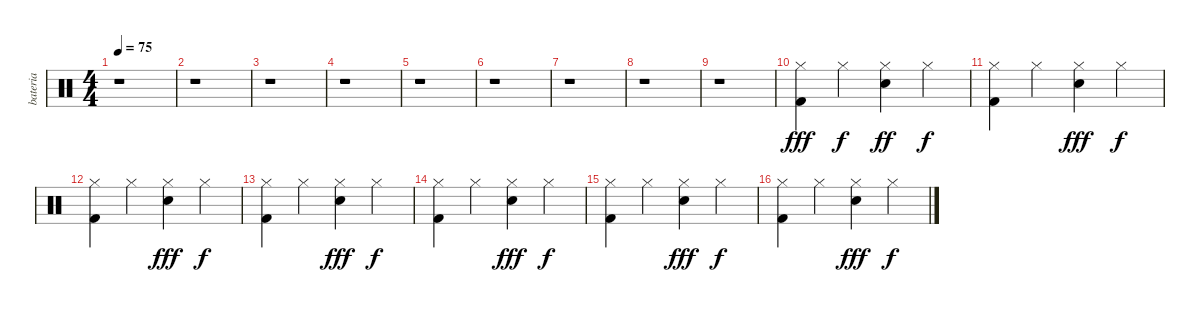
\track ("bateria" "bateria") {instrument percussion}
\staff {score}
\articulation defaults
\ts (4 4)
\tempo 75
\clef neutral
\ks c
r.1{dy fff} |
r.1 |
r.1 |
r.1 |
r.1 |
r.1 |
r.1 |
r.1 |
r.1 |
("Hi-Hat (closed)" "Kick (hit) 2").4 "Hi-Hat (closed)".4{dy f} ("Hi-Hat (closed)" "Electric Snare (hit)").4{dy ff} "Hi-Hat (closed)".4{dy f} |
("Hi-Hat (closed)" "Kick (hit) 2").4 "Hi-Hat (closed)".4 ("Hi-Hat (closed)" "Electric Snare (hit)").4{dy fff} "Hi-Hat (closed)".4{dy f} |
("Hi-Hat (closed)" "Kick (hit) 2").4 "Hi-Hat (closed)".4 ("Hi-Hat (closed)" "Electric Snare (hit)").4{dy fff} "Hi-Hat (closed)".4{dy f} |
("Hi-Hat (closed)" "Kick (hit) 2").4 "Hi-Hat (closed)".4 ("Hi-Hat (closed)" "Electric Snare (hit)").4{dy fff} "Hi-Hat (closed)".4{dy f} |
("Hi-Hat (closed)" "Kick (hit) 2").4 "Hi-Hat (closed)".4 ("Hi-Hat (closed)" "Electric Snare (hit)").4{dy fff} "Hi-Hat (closed)".4{dy f} |
("Hi-Hat (closed)" "Kick (hit) 2").4 "Hi-Hat (closed)".4 ("Hi-Hat (closed)" "Electric Snare (hit)").4{dy fff} "Hi-Hat (closed)".4{dy f} |
("Hi-Hat (closed)" "Kick (hit) 2").4 "Hi-Hat (closed)".4 ("Hi-Hat (closed)" "Electric Snare (hit)").4{dy fff} "Hi-Hat (closed)".4{dy f}
